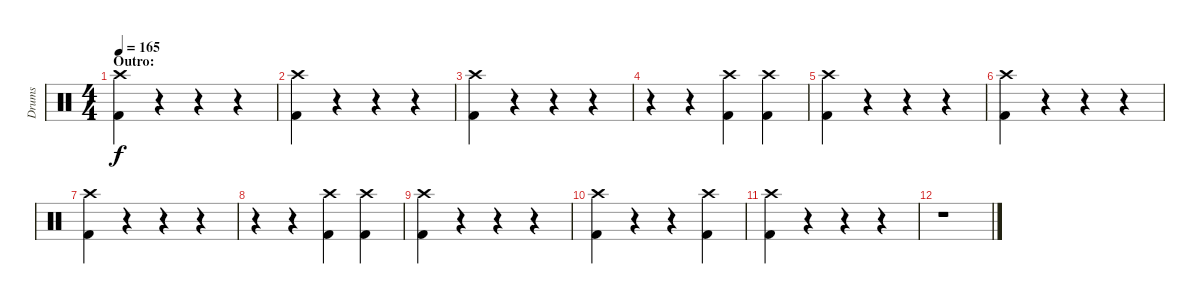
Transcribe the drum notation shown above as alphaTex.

\track ("Drums" "Drums") {instrument percussion}
\staff {score}
\articulation defaults
\ts (4 4)
\section ("" "Outro:")
\tempo 165
\clef neutral
\ks c
("Crash high (hit)" "Kick (hit) 2").4{dy f} r.4 r.4 r.4 |
("Crash high (hit)" "Kick (hit) 2").4 r.4 r.4 r.4 |
("Crash high (hit)" "Kick (hit) 2").4 r.4 r.4 r.4 |
r.4 r.4 ("Crash high (hit)" "Kick (hit) 2").4 ("Crash high (hit)" "Kick (hit) 2").4 |
("Crash high (hit)" "Kick (hit) 2").4 r.4 r.4 r.4 |
("Crash high (hit)" "Kick (hit) 2").4 r.4 r.4 r.4 |
("Crash high (hit)" "Kick (hit) 2").4 r.4 r.4 r.4 |
r.4 r.4 ("Crash high (hit)" "Kick (hit) 2").4 ("Crash high (hit)" "Kick (hit) 2").4 |
("Crash high (hit)" "Kick (hit) 2").4 r.4 r.4 r.4 |
("Crash high (hit)" "Kick (hit) 2").4 r.4 r.4 ("Crash high (hit)" "Kick (hit) 2").4 |
("Crash high (hit)" "Kick (hit) 2").4 r.4 r.4 r.4 |
r.1
